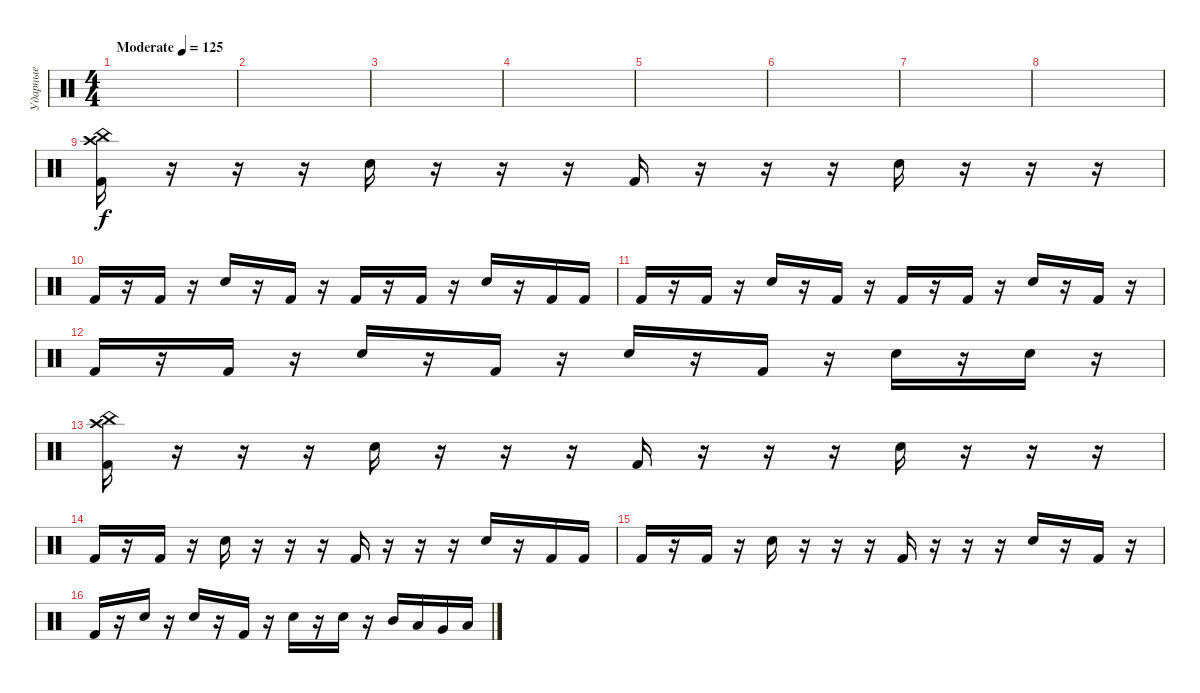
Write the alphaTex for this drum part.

\track ("Ударные" "Ударные") {instrument percussion}
\staff {score}
\articulation defaults
\ts (4 4)
\tempo (125 "Moderate")
\clef neutral
\ks c
|
|
|
|
|
|
|
|
("Crash high (hit)" "China (hit)" "Kick (hit) 2").16 r.16 r.16 r.16 "Snare (hit) 2".16 r.16 r.16 r.16 "Kick (hit) 2".16 r.16 r.16 r.16 "Snare (hit) 2".16 r.16 r.16 r.16 |
"Kick (hit) 2".16 r.16 "Kick (hit) 2".16 r.16 "Snare (hit) 2".16 r.16 "Kick (hit) 2".16 r.16 "Kick (hit) 2".16 r.16 "Kick (hit) 2".16 r.16 "Snare (hit) 2".16 r.16 "Kick (hit) 2".16 "Kick (hit) 2".16 |
"Kick (hit) 2".16 r.16 "Kick (hit) 2".16 r.16 "Snare (hit) 2".16 r.16 "Kick (hit) 2".16 r.16 "Kick (hit) 2".16 r.16 "Kick (hit) 2".16 r.16 "Snare (hit) 2".16 r.16 "Kick (hit) 2".16 r.16 |
"Kick (hit) 2".16 r.16 "Kick (hit) 2".16 r.16 "Snare (hit) 2".16 r.16 "Kick (hit) 2".16 r.16 "Snare (hit) 2".16 r.16 "Kick (hit) 2".16 r.16 "Snare (hit) 2".16 r.16 "Snare (hit) 2".16 r.16 |
("Crash high (hit)" "China (hit)" "Kick (hit) 2").16 r.16 r.16 r.16 "Snare (hit) 2".16 r.16 r.16 r.16 "Kick (hit) 2".16 r.16 r.16 r.16 "Snare (hit) 2".16 r.16 r.16 r.16 |
"Kick (hit) 2".16 r.16 "Kick (hit) 2".16 r.16 "Snare (hit) 2".16 r.16 r.16 r.16 "Kick (hit) 2".16 r.16 r.16 r.16 "Snare (hit) 2".16 r.16 "Kick (hit) 2".16 "Kick (hit) 2".16 |
"Kick (hit) 2".16 r.16 "Kick (hit) 2".16 r.16 "Snare (hit) 2".16 r.16 r.16 r.16 "Kick (hit) 2".16 r.16 r.16 r.16 "Snare (hit) 2".16 r.16 "Kick (hit) 2".16 r.16 |
"Kick (hit) 2".16 r.16 "Snare (hit) 2".16 r.16 "Snare (hit) 2".16 r.16 "Kick (hit) 2".16 r.16 "Snare (hit) 2".16 r.16 "Snare (hit) 2".16 r.16 "Mid Tom (hit)".16 "Low Tom (hit)".16 "Very Low Tom (hit)".16 "Low Floor Tom (hit)".16
